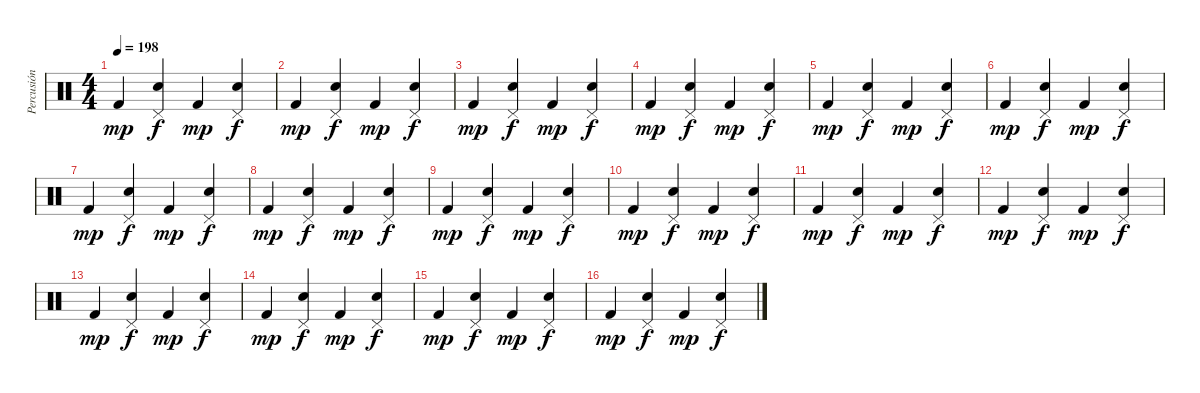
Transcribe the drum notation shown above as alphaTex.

\track ("Percusión" "Percusión") {instrument percussion}
\staff {score}
\articulation defaults
\ts (4 4)
\tempo 198
\clef neutral
\ks c "Kick (hit) 2".4{dy mp}
("Pedal Hi-Hat (hit)" "Snare (hit) 2").4{dy f} "Kick (hit) 2".4{dy mp} ("Pedal Hi-Hat (hit)" "Snare (hit) 2").4{dy f} |
"Kick (hit) 2".4{dy mp} ("Pedal Hi-Hat (hit)" "Snare (hit) 2").4{dy f} "Kick (hit) 2".4{dy mp} ("Pedal Hi-Hat (hit)" "Snare (hit) 2").4{dy f} |
"Kick (hit) 2".4{dy mp} ("Pedal Hi-Hat (hit)" "Snare (hit) 2").4{dy f} "Kick (hit) 2".4{dy mp} ("Pedal Hi-Hat (hit)" "Snare (hit) 2").4{dy f} |
"Kick (hit) 2".4{dy mp} ("Pedal Hi-Hat (hit)" "Snare (hit) 2").4{dy f} "Kick (hit) 2".4{dy mp} ("Pedal Hi-Hat (hit)" "Snare (hit) 2").4{dy f} |
"Kick (hit) 2".4{dy mp} ("Pedal Hi-Hat (hit)" "Snare (hit) 2").4{dy f} "Kick (hit) 2".4{dy mp} ("Pedal Hi-Hat (hit)" "Snare (hit) 2").4{dy f} |
"Kick (hit) 2".4{dy mp} ("Pedal Hi-Hat (hit)" "Snare (hit) 2").4{dy f} "Kick (hit) 2".4{dy mp} ("Pedal Hi-Hat (hit)" "Snare (hit) 2").4{dy f} |
"Kick (hit) 2".4{dy mp} ("Pedal Hi-Hat (hit)" "Snare (hit) 2").4{dy f} "Kick (hit) 2".4{dy mp} ("Pedal Hi-Hat (hit)" "Snare (hit) 2").4{dy f} |
"Kick (hit) 2".4{dy mp} ("Pedal Hi-Hat (hit)" "Snare (hit) 2").4{dy f} "Kick (hit) 2".4{dy mp} ("Pedal Hi-Hat (hit)" "Snare (hit) 2").4{dy f} |
"Kick (hit) 2".4{dy mp} ("Pedal Hi-Hat (hit)" "Snare (hit) 2").4{dy f} "Kick (hit) 2".4{dy mp} ("Pedal Hi-Hat (hit)" "Snare (hit) 2").4{dy f} |
"Kick (hit) 2".4{dy mp} ("Pedal Hi-Hat (hit)" "Snare (hit) 2").4{dy f} "Kick (hit) 2".4{dy mp} ("Pedal Hi-Hat (hit)" "Snare (hit) 2").4{dy f} |
"Kick (hit) 2".4{dy mp} ("Pedal Hi-Hat (hit)" "Snare (hit) 2").4{dy f} "Kick (hit) 2".4{dy mp} ("Pedal Hi-Hat (hit)" "Snare (hit) 2").4{dy f} |
"Kick (hit) 2".4{dy mp} ("Pedal Hi-Hat (hit)" "Snare (hit) 2").4{dy f} "Kick (hit) 2".4{dy mp} ("Pedal Hi-Hat (hit)" "Snare (hit) 2").4{dy f} |
"Kick (hit) 2".4{dy mp} ("Pedal Hi-Hat (hit)" "Snare (hit) 2").4{dy f} "Kick (hit) 2".4{dy mp} ("Pedal Hi-Hat (hit)" "Snare (hit) 2").4{dy f} |
"Kick (hit) 2".4{dy mp} ("Pedal Hi-Hat (hit)" "Snare (hit) 2").4{dy f} "Kick (hit) 2".4{dy mp} ("Pedal Hi-Hat (hit)" "Snare (hit) 2").4{dy f} |
"Kick (hit) 2".4{dy mp} ("Pedal Hi-Hat (hit)" "Snare (hit) 2").4{dy f} "Kick (hit) 2".4{dy mp} ("Pedal Hi-Hat (hit)" "Snare (hit) 2").4{dy f} |
"Kick (hit) 2".4{dy mp} ("Pedal Hi-Hat (hit)" "Snare (hit) 2").4{dy f} "Kick (hit) 2".4{dy mp} ("Pedal Hi-Hat (hit)" "Snare (hit) 2").4{dy f}
